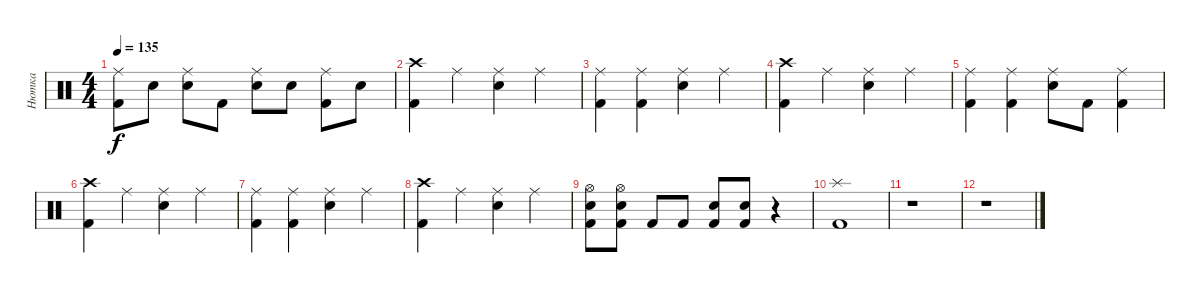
\track ("Нютка" "Нютка") {instrument percussion}
\staff {score}
\articulation defaults
\ts (4 4)
\tempo 135
\clef neutral
\ks c
("Ride (middle)" "Kick (hit) 2").8{dy f} "Snare (hit) 2".8 ("Ride (middle)" "Snare (hit) 2").8 "Kick (hit) 2".8 ("Ride (middle)" "Snare (hit) 2").8 "Snare (hit) 2".8 ("Ride (middle)" "Kick (hit) 2").8 "Snare (hit) 2".8 |
("Crash high (hit)" "Kick (hit) 2").4 "Ride (middle)".4 ("Ride (middle)" "Snare (hit) 2").4 "Ride (middle)".4 |
("Ride (middle)" "Kick (hit) 2").4 ("Ride (middle)" "Kick (hit) 2").4 ("Ride (middle)" "Snare (hit) 2").4 "Ride (middle)".4 |
("Crash high (hit)" "Kick (hit) 2").4 "Ride (middle)".4 ("Ride (middle)" "Snare (hit) 2").4 "Ride (middle)".4 |
("Ride (middle)" "Kick (hit) 2").4 ("Ride (middle)" "Kick (hit) 2").4 ("Ride (middle)" "Snare (hit) 2").8 "Kick (hit) 2".8 ("Ride (middle)" "Kick (hit) 2").4 |
("Crash high (hit)" "Kick (hit) 2").4 "Ride (middle)".4 ("Ride (middle)" "Snare (hit) 2").4 "Ride (middle)".4 |
("Ride (middle)" "Kick (hit) 2").4 ("Ride (middle)" "Kick (hit) 2").4 ("Ride (middle)" "Snare (hit) 2").4 "Ride (middle)".4 |
("Crash high (hit)" "Kick (hit) 2").4 "Ride (middle)".4 ("Ride (middle)" "Snare (hit) 2").4 "Ride (middle)".4 |
("Hi-Hat (open)" "Snare (hit) 2" "Kick (hit) 2").8 ("Hi-Hat (open)" "Snare (hit) 2" "Kick (hit) 2").8 "Kick (hit) 2".8 "Kick (hit) 2".8 ("Snare (hit) 2" "Kick (hit) 2").8 ("Snare (hit) 2" "Kick (hit) 2").8 r.4 |
("Splash (hit)" "Kick (hit) 2").1 |
r.1 |
r.1
